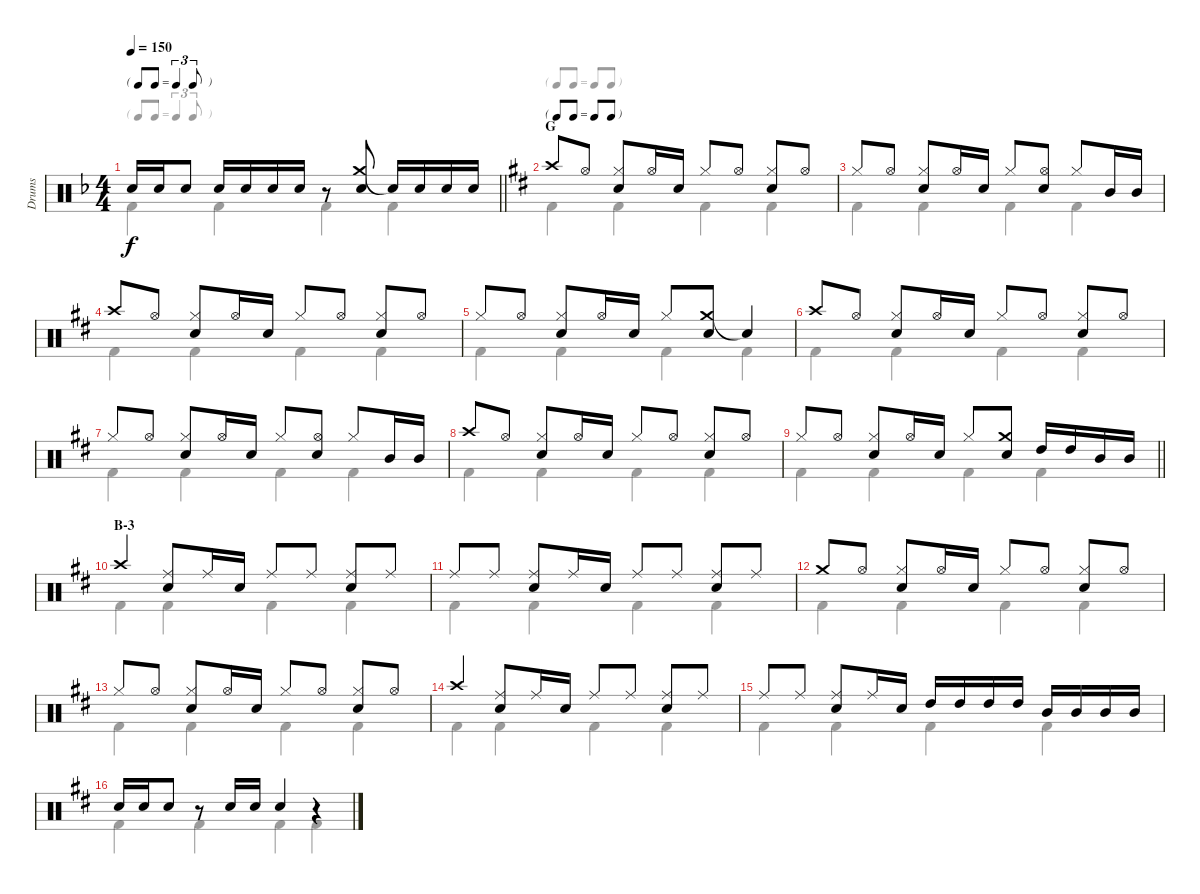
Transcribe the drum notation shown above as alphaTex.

\track ("Drums" "Drums") {instrument percussion}
\staff {score}
\articulation defaults
\voice
\ts (4 4)
\tf triplet8th
\tempo 150
\clef neutral
\barLineRight lightlight
\ks f "Snare (hit) 2".16{dy f} "Snare (hit) 2".16 "Snare (hit) 2".8 "Snare (hit) 2".16 "Snare (hit) 2".16 "Snare (hit) 2".16 "Snare (hit) 2".16
r.8 ("Crash medium (hit)" "Snare (hit) 2").8 "Snare (hit)"{t}.16 "Snare (hit) 2".16 "Snare (hit) 2".16 "Snare (hit) 2".16 |
\tf none
\section ("" "G")
\ks d "Crash high (hit)".8 "Hi-Hat (open)".8
("Hi-Hat (closed)" "Snare (hit) 2").8 "Hi-Hat (open)".16 "Snare (hit) 2".16 "Hi-Hat (closed)".8 "Hi-Hat (open)".8 ("Hi-Hat (closed)" "Snare (hit) 2").8 "Hi-Hat (open)".8 |
"Hi-Hat (closed)".8 "Hi-Hat (open)".8 ("Hi-Hat (closed)" "Snare (hit) 2").8 "Hi-Hat (open)".16 "Snare (hit) 2".16 "Hi-Hat (closed)".8 ("Hi-Hat (open)" "Snare (hit) 2").8 "Hi-Hat (closed)".8 "Mid Tom (hit)".16 "Mid Tom (hit)".16 |
"Crash high (hit)".8 "Hi-Hat (open)".8 ("Hi-Hat (closed)" "Snare (hit) 2").8 "Hi-Hat (open)".16 "Snare (hit) 2".16 "Hi-Hat (closed)".8 "Hi-Hat (open)".8 ("Hi-Hat (closed)" "Snare (hit) 2").8 "Hi-Hat (open)".8 |
"Hi-Hat (closed)".8 "Hi-Hat (open)".8 ("Hi-Hat (closed)" "Snare (hit) 2").8 "Hi-Hat (open)".16 "Snare (hit) 2".16 "Hi-Hat (closed)".8 ("Crash medium (hit)" "Snare (hit) 2").8 "Snare (hit)"{t}.4 |
"Crash high (hit)".8 "Hi-Hat (open)".8 ("Hi-Hat (closed)" "Snare (hit) 2").8 "Hi-Hat (open)".16 "Snare (hit) 2".16 "Hi-Hat (closed)".8 "Hi-Hat (open)".8 ("Hi-Hat (closed)" "Snare (hit) 2").8 "Hi-Hat (open)".8 |
"Hi-Hat (closed)".8 "Hi-Hat (open)".8 ("Hi-Hat (closed)" "Snare (hit) 2").8 "Hi-Hat (open)".16 "Snare (hit) 2".16 "Hi-Hat (closed)".8 ("Hi-Hat (open)" "Snare (hit) 2").8 "Hi-Hat (closed)".8 "Mid Tom (hit)".16 "Mid Tom (hit)".16 |
"Crash high (hit)".8 "Hi-Hat (open)".8 ("Hi-Hat (closed)" "Snare (hit) 2").8 "Hi-Hat (open)".16 "Snare (hit) 2".16 "Hi-Hat (closed)".8 "Hi-Hat (open)".8 ("Hi-Hat (closed)" "Snare (hit) 2").8 "Hi-Hat (open)".8 |
\barLineRight lightlight "Hi-Hat (closed)".8 "Hi-Hat (open)".8
("Hi-Hat (closed)" "Snare (hit) 2").8 "Hi-Hat (open)".16 "Snare (hit) 2".16 "Hi-Hat (closed)".8 ("Crash medium (hit)" "Snare (hit) 2").8 "High Tom (hit)".16 "High Tom (hit)".16 "Mid Tom (hit)".16 "Mid Tom (hit)".16 |
\section ("" "B-3")
"Crash high (hit)".4 ("Ride (middle)" "Snare (hit) 2").8 "Ride (middle)".16 "Snare (hit) 2".16 "Ride (middle)".8 "Ride (middle)".8 ("Ride (middle)" "Snare (hit) 2").8 "Ride (middle)".8 |
"Ride (middle)".8 "Ride (middle)".8 ("Ride (middle)" "Snare (hit) 2").8 "Ride (middle)".16 "Snare (hit) 2".16 "Ride (middle)".8 "Ride (middle)".8 ("Ride (middle)" "Snare (hit) 2").8 "Ride (middle)".8 |
"Crash medium (hit)".8 "Hi-Hat (open)".8 ("Hi-Hat (closed)" "Snare (hit) 2").8 "Hi-Hat (open)".16 "Snare (hit) 2".16 "Hi-Hat (closed)".8 "Hi-Hat (open)".8 ("Hi-Hat (closed)" "Snare (hit) 2").8 "Hi-Hat (open)".8 |
"Hi-Hat (closed)".8 "Hi-Hat (open)".8 ("Hi-Hat (closed)" "Snare (hit) 2").8 "Hi-Hat (open)".16 "Snare (hit) 2".16 "Hi-Hat (closed)".8 "Hi-Hat (open)".8 ("Hi-Hat (closed)" "Snare (hit) 2").8 "Hi-Hat (open)".8 |
"Crash high (hit)".4 ("Ride (middle)" "Snare (hit) 2").8 "Ride (middle)".16 "Snare (hit) 2".16 "Ride (middle)".8 "Ride (middle)".8 ("Ride (middle)" "Snare (hit) 2").8 "Ride (middle)".8 |
"Ride (middle)".8 "Ride (middle)".8 ("Ride (middle)" "Snare (hit) 2").8 "Ride (middle)".16 "Snare (hit) 2".16 "High Tom (hit)".16 "High Tom (hit)".16 "High Tom (hit)".16 "High Tom (hit)".16 "Mid Tom (hit)".16 "Mid Tom (hit)".16 "Mid Tom (hit)".16 "Mid Tom (hit)".16 |
"Snare (hit) 2".16 "Snare (hit) 2".16 "Snare (hit) 2".8 r.8 "Snare (hit) 2".16 "Snare (hit) 2".16 "Snare (hit) 2".4 r.4
\voice
\clef neutral
\ottava regular
\simile none
\barLineRight lightlight
\ks f "Kick (hit) 2".4{dy f} "Kick (hit) 2".4 "Kick (hit) 2".4 "Kick (hit) 2".4
|
\ks d "Kick (hit) 2".4 "Kick (hit) 2".4 "Kick (hit) 2".4 "Kick (hit) 2".4
|
"Kick (hit) 2".4 "Kick (hit) 2".4 "Kick (hit) 2".4 "Kick (hit) 2".4 |
"Kick (hit) 2".4 "Kick (hit) 2".4 "Kick (hit) 2".4 "Kick (hit) 2".4 |
"Kick (hit) 2".4 "Kick (hit) 2".4 "Kick (hit) 2".4 "Kick (hit) 2".4 |
"Kick (hit) 2".4 "Kick (hit) 2".4 "Kick (hit) 2".4 "Kick (hit) 2".4 |
"Kick (hit) 2".4 "Kick (hit) 2".4 "Kick (hit) 2".4 "Kick (hit) 2".4 |
"Kick (hit) 2".4 "Kick (hit) 2".4 "Kick (hit) 2".4 "Kick (hit) 2".4 |
\barLineRight lightlight "Kick (hit) 2".4 "Kick (hit) 2".4 "Kick (hit) 2".4 "Kick (hit) 2".4
|
"Kick (hit) 2".4 "Kick (hit) 2".4 "Kick (hit) 2".4 "Kick (hit) 2".4 |
"Kick (hit) 2".4 "Kick (hit) 2".4 "Kick (hit) 2".4 "Kick (hit) 2".4 |
"Kick (hit) 2".4 "Kick (hit) 2".4 "Kick (hit) 2".4 "Kick (hit) 2".4 |
"Kick (hit) 2".4 "Kick (hit) 2".4 "Kick (hit) 2".4 "Kick (hit) 2".4 |
"Kick (hit) 2".4 "Kick (hit) 2".4 "Kick (hit) 2".4 "Kick (hit) 2".4 |
"Kick (hit) 2".4 "Kick (hit) 2".4 "Kick (hit) 2".4 "Kick (hit) 2".4 |
"Kick (hit) 2".4 "Kick (hit) 2".4 "Kick (hit) 2".4 "Kick (hit) 2".4
